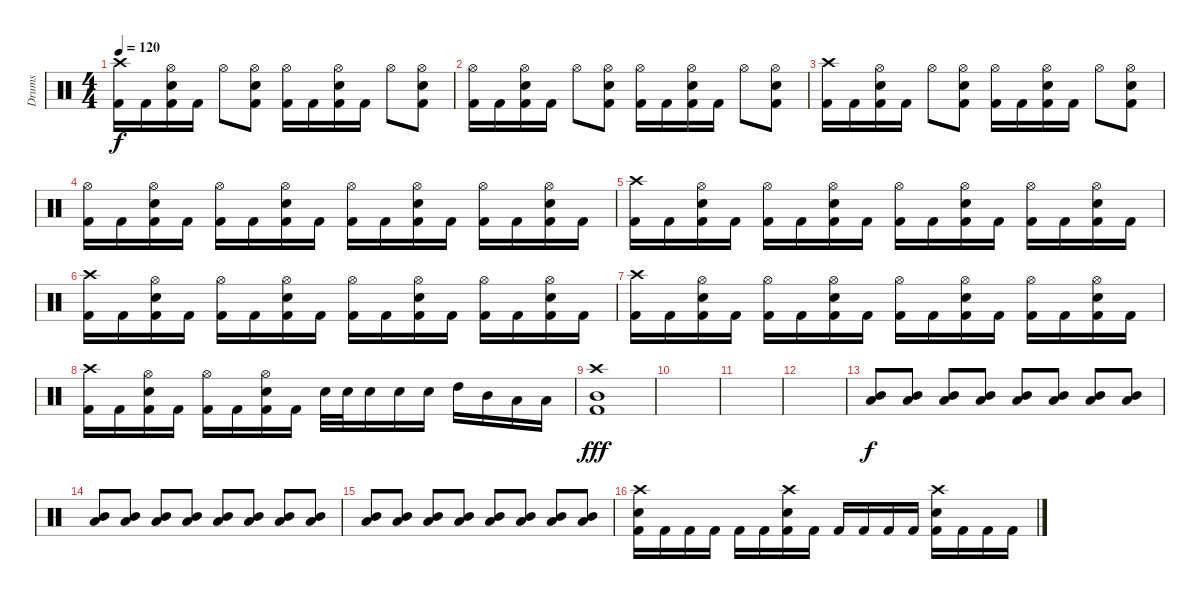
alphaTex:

\track ("Drums" "Drums") {instrument percussion}
\staff {score}
\articulation defaults
\ts (4 4)
\tempo 120
\clef neutral
\ks c
("Crash high (hit)" "Kick (hit) 2").16{dy f} "Kick (hit) 2".16 ("Hi-Hat (open)" "Snare (hit) 2" "Kick (hit) 2").16 "Kick (hit) 2".16 "Hi-Hat (open)".8 ("Hi-Hat (open)" "Snare (hit) 2" "Kick (hit) 2").8 ("Hi-Hat (open)" "Kick (hit) 2").16 "Kick (hit) 2".16 ("Hi-Hat (open)" "Snare (hit) 2" "Kick (hit) 2").16 "Kick (hit) 2".16 "Hi-Hat (open)".8 ("Hi-Hat (open)" "Snare (hit) 2" "Kick (hit) 2").8 |
("Hi-Hat (open)" "Kick (hit) 2").16 "Kick (hit) 2".16 ("Hi-Hat (open)" "Snare (hit) 2" "Kick (hit) 2").16 "Kick (hit) 2".16 "Hi-Hat (open)".8 ("Hi-Hat (open)" "Snare (hit) 2" "Kick (hit) 2").8 ("Hi-Hat (open)" "Kick (hit) 2").16 "Kick (hit) 2".16 ("Hi-Hat (open)" "Snare (hit) 2" "Kick (hit) 2").16 "Kick (hit) 2".16 "Hi-Hat (open)".8 ("Hi-Hat (open)" "Snare (hit) 2" "Kick (hit) 2").8 |
("Crash high (hit)" "Kick (hit) 2").16 "Kick (hit) 2".16 ("Hi-Hat (open)" "Snare (hit) 2" "Kick (hit) 2").16 "Kick (hit) 2".16 "Hi-Hat (open)".8 ("Hi-Hat (open)" "Snare (hit) 2" "Kick (hit) 2").8 ("Hi-Hat (open)" "Kick (hit) 2").16 "Kick (hit) 2".16 ("Hi-Hat (open)" "Snare (hit) 2" "Kick (hit) 2").16 "Kick (hit) 2".16 "Hi-Hat (open)".8 ("Hi-Hat (open)" "Snare (hit) 2" "Kick (hit) 2").8 |
("Hi-Hat (open)" "Kick (hit) 2").16 "Kick (hit) 2".16 ("Hi-Hat (open)" "Snare (hit) 2" "Kick (hit) 2").16 "Kick (hit) 2".16 ("Hi-Hat (open)" "Kick (hit) 2").16 "Kick (hit) 2".16 ("Hi-Hat (open)" "Snare (hit) 2" "Kick (hit) 2").16 "Kick (hit) 2".16 ("Hi-Hat (open)" "Kick (hit) 2").16 "Kick (hit) 2".16 ("Hi-Hat (open)" "Snare (hit) 2" "Kick (hit) 2").16 "Kick (hit) 2".16 ("Hi-Hat (open)" "Kick (hit) 2").16 "Kick (hit) 2".16 ("Hi-Hat (open)" "Snare (hit) 2" "Kick (hit) 2").16 "Kick (hit) 2".16 |
("Crash high (hit)" "Kick (hit) 2").16 "Kick (hit) 2".16 ("Hi-Hat (open)" "Snare (hit) 2" "Kick (hit) 2").16 "Kick (hit) 2".16 ("Hi-Hat (open)" "Kick (hit) 2").16 "Kick (hit) 2".16 ("Hi-Hat (open)" "Snare (hit) 2" "Kick (hit) 2").16 "Kick (hit) 2".16 ("Hi-Hat (open)" "Kick (hit) 2").16 "Kick (hit) 2".16 ("Hi-Hat (open)" "Snare (hit) 2" "Kick (hit) 2").16 "Kick (hit) 2".16 ("Hi-Hat (open)" "Kick (hit) 2").16 "Kick (hit) 2".16 ("Hi-Hat (open)" "Snare (hit) 2" "Kick (hit) 2").16 "Kick (hit) 2".16 |
("Crash high (hit)" "Kick (hit) 2").16 "Kick (hit) 2".16 ("Hi-Hat (open)" "Snare (hit) 2" "Kick (hit) 2").16 "Kick (hit) 2".16 ("Hi-Hat (open)" "Kick (hit) 2").16 "Kick (hit) 2".16 ("Hi-Hat (open)" "Snare (hit) 2" "Kick (hit) 2").16 "Kick (hit) 2".16 ("Hi-Hat (open)" "Kick (hit) 2").16 "Kick (hit) 2".16 ("Hi-Hat (open)" "Snare (hit) 2" "Kick (hit) 2").16 "Kick (hit) 2".16 ("Hi-Hat (open)" "Kick (hit) 2").16 "Kick (hit) 2".16 ("Hi-Hat (open)" "Snare (hit) 2" "Kick (hit) 2").16 "Kick (hit) 2".16 |
("Crash high (hit)" "Kick (hit) 2").16 "Kick (hit) 2".16 ("Hi-Hat (open)" "Snare (hit) 2" "Kick (hit) 2").16 "Kick (hit) 2".16 ("Hi-Hat (open)" "Kick (hit) 2").16 "Kick (hit) 2".16 ("Hi-Hat (open)" "Snare (hit) 2" "Kick (hit) 2").16 "Kick (hit) 2".16 ("Hi-Hat (open)" "Kick (hit) 2").16 "Kick (hit) 2".16 ("Hi-Hat (open)" "Snare (hit) 2" "Kick (hit) 2").16 "Kick (hit) 2".16 ("Hi-Hat (open)" "Kick (hit) 2").16 "Kick (hit) 2".16 ("Hi-Hat (open)" "Snare (hit) 2" "Kick (hit) 2").16 "Kick (hit) 2".16 |
("Crash high (hit)" "Kick (hit) 2").16 "Kick (hit) 2".16 ("Hi-Hat (open)" "Snare (hit) 2" "Kick (hit) 2").16 "Kick (hit) 2".16 ("Hi-Hat (open)" "Kick (hit) 2").16 "Kick (hit) 2".16 ("Hi-Hat (open)" "Snare (hit) 2" "Kick (hit) 2").16 "Kick (hit) 2".16 "Snare (hit) 2".32 "Snare (hit) 2".32 "Snare (hit) 2".16 "Snare (hit) 2".16 "Snare (hit) 2".16 "High Tom (hit)".16 "Mid Tom (hit)".16 "Low Tom (hit)".16 "Low Tom (hit)".16 |
("Crash high (hit)" "Mid Tom (hit)" "Kick (hit) 2").1{dy fff} |
|
|
|
("Low Tom (hit)" "Mid Tom (hit)").8{dy f volume 13} ("Low Tom (hit)" "Mid Tom (hit)").8 ("Low Tom (hit)" "Mid Tom (hit)").8 ("Low Tom (hit)" "Mid Tom (hit)").8 ("Low Tom (hit)" "Mid Tom (hit)").8 ("Low Tom (hit)" "Mid Tom (hit)").8 ("Low Tom (hit)" "Mid Tom (hit)").8 ("Low Tom (hit)" "Mid Tom (hit)").8 |
("Low Tom (hit)" "Mid Tom (hit)").8 ("Low Tom (hit)" "Mid Tom (hit)").8 ("Low Tom (hit)" "Mid Tom (hit)").8 ("Low Tom (hit)" "Mid Tom (hit)").8 ("Low Tom (hit)" "Mid Tom (hit)").8 ("Low Tom (hit)" "Mid Tom (hit)").8 ("Low Tom (hit)" "Mid Tom (hit)").8 ("Low Tom (hit)" "Mid Tom (hit)").8 |
("Low Tom (hit)" "Mid Tom (hit)").8 ("Low Tom (hit)" "Mid Tom (hit)").8 ("Low Tom (hit)" "Mid Tom (hit)").8 ("Low Tom (hit)" "Mid Tom (hit)").8 ("Low Tom (hit)" "Mid Tom (hit)").8 ("Low Tom (hit)" "Mid Tom (hit)").8 ("Low Tom (hit)" "Mid Tom (hit)").8 ("Low Tom (hit)" "Mid Tom (hit)").8 |
("Crash high (hit)" "Snare (hit) 2" "Kick (hit) 2").16 "Kick (hit) 2".16 "Kick (hit) 2".16 "Kick (hit) 2".16 "Kick (hit) 2".16 "Kick (hit) 2".16 ("Crash high (hit)" "Snare (hit) 2" "Kick (hit) 2").16 "Kick (hit) 2".16 "Kick (hit) 2".16 "Kick (hit) 2".16 "Kick (hit) 2".16 "Kick (hit) 2".16 ("Crash high (hit)" "Snare (hit) 2" "Kick (hit) 2").16 "Kick (hit) 2".16 "Kick (hit) 2".16 "Kick (hit) 2".16
